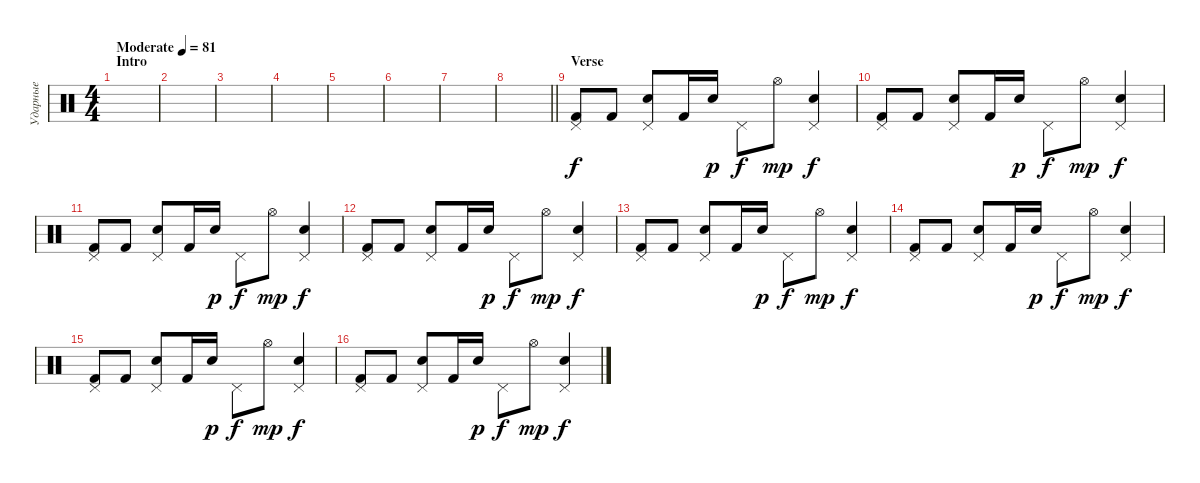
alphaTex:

\track ("Ударные" "Ударные") {instrument percussion}
\staff {score}
\articulation defaults
\ts (4 4)
\section ("" "Intro")
\tempo (81 "Moderate")
\clef neutral
\ks c
|
|
|
|
|
|
|
\barLineRight lightlight
|
\section ("" "Verse")
("Pedal Hi-Hat (hit)" "Kick (hit) 2").8 "Kick (hit) 2".8 ("Pedal Hi-Hat (hit)" "Electric Snare (hit)").8 "Kick (hit) 2".16 "Electric Snare (hit)".16{dy p} "Pedal Hi-Hat (hit)".8{dy f} "Hi-Hat (open)".8{dy mp} ("Pedal Hi-Hat (hit)" "Electric Snare (hit)").4{dy f} |
("Pedal Hi-Hat (hit)" "Kick (hit) 2").8 "Kick (hit) 2".8 ("Pedal Hi-Hat (hit)" "Electric Snare (hit)").8 "Kick (hit) 2".16 "Electric Snare (hit)".16{dy p} "Pedal Hi-Hat (hit)".8{dy f} "Hi-Hat (open)".8{dy mp} ("Pedal Hi-Hat (hit)" "Electric Snare (hit)").4{dy f} |
("Pedal Hi-Hat (hit)" "Kick (hit) 2").8 "Kick (hit) 2".8 ("Pedal Hi-Hat (hit)" "Electric Snare (hit)").8 "Kick (hit) 2".16 "Electric Snare (hit)".16{dy p} "Pedal Hi-Hat (hit)".8{dy f} "Hi-Hat (open)".8{dy mp} ("Pedal Hi-Hat (hit)" "Electric Snare (hit)").4{dy f} |
("Pedal Hi-Hat (hit)" "Kick (hit) 2").8 "Kick (hit) 2".8 ("Pedal Hi-Hat (hit)" "Electric Snare (hit)").8 "Kick (hit) 2".16 "Electric Snare (hit)".16{dy p} "Pedal Hi-Hat (hit)".8{dy f} "Hi-Hat (open)".8{dy mp} ("Pedal Hi-Hat (hit)" "Electric Snare (hit)").4{dy f} |
("Pedal Hi-Hat (hit)" "Kick (hit) 2").8 "Kick (hit) 2".8 ("Pedal Hi-Hat (hit)" "Electric Snare (hit)").8 "Kick (hit) 2".16 "Electric Snare (hit)".16{dy p} "Pedal Hi-Hat (hit)".8{dy f} "Hi-Hat (open)".8{dy mp} ("Pedal Hi-Hat (hit)" "Electric Snare (hit)").4{dy f} |
("Pedal Hi-Hat (hit)" "Kick (hit) 2").8 "Kick (hit) 2".8 ("Pedal Hi-Hat (hit)" "Electric Snare (hit)").8 "Kick (hit) 2".16 "Electric Snare (hit)".16{dy p} "Pedal Hi-Hat (hit)".8{dy f} "Hi-Hat (open)".8{dy mp} ("Pedal Hi-Hat (hit)" "Electric Snare (hit)").4{dy f} |
("Pedal Hi-Hat (hit)" "Kick (hit) 2").8 "Kick (hit) 2".8 ("Pedal Hi-Hat (hit)" "Electric Snare (hit)").8 "Kick (hit) 2".16 "Electric Snare (hit)".16{dy p} "Pedal Hi-Hat (hit)".8{dy f} "Hi-Hat (open)".8{dy mp} ("Pedal Hi-Hat (hit)" "Electric Snare (hit)").4{dy f} |
("Pedal Hi-Hat (hit)" "Kick (hit) 2").8 "Kick (hit) 2".8 ("Pedal Hi-Hat (hit)" "Electric Snare (hit)").8 "Kick (hit) 2".16 "Electric Snare (hit)".16{dy p} "Pedal Hi-Hat (hit)".8{dy f} "Hi-Hat (open)".8{dy mp} ("Pedal Hi-Hat (hit)" "Electric Snare (hit)").4{dy f}
